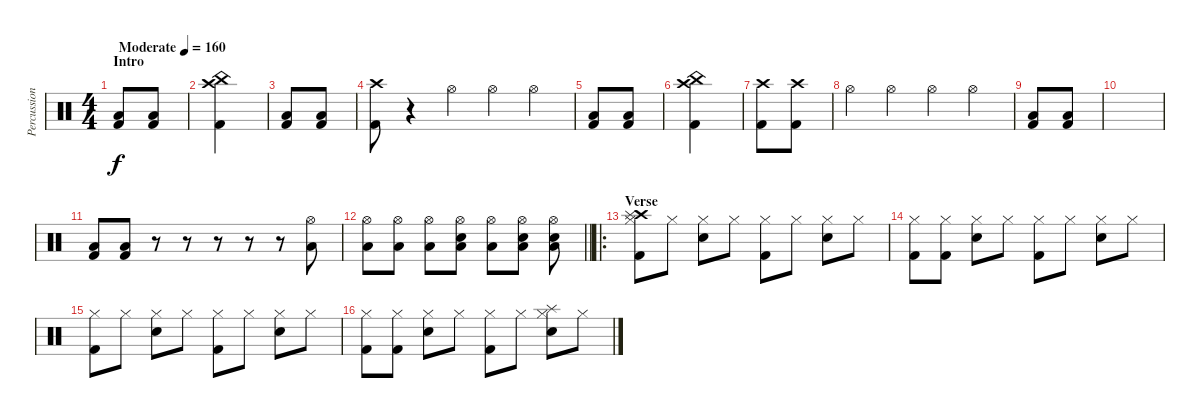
\track ("Percussion" "Percussion") {instrument percussion}
\staff {score}
\articulation defaults
\ts (4 4)
\section ("" "Intro")
\tempo (160 "Moderate")
\clef neutral
\ks c
("Low Floor Tom (hit)" "Kick (hit) 2").8{dy f} ("Low Floor Tom (hit)" "Kick (hit) 2").8 |
("China (hit)" "Crash high (hit)" "Kick (hit) 2").4 |
("Low Floor Tom (hit)" "Kick (hit) 2").8 ("Low Floor Tom (hit)" "Kick (hit) 2").8 |
("Crash high (hit)" "Kick (hit) 2").8 r.4 "Hi-Hat (open)".4 "Hi-Hat (open)".4 "Hi-Hat (open)".4 |
("Low Floor Tom (hit)" "Kick (hit) 2").8 ("Low Floor Tom (hit)" "Kick (hit) 2").8 |
("China (hit)" "Crash high (hit)" "Kick (hit) 2").4 |
("Kick (hit) 2" "Crash high (hit)").8 ("Kick (hit) 2" "Crash high (hit)").8 |
"Hi-Hat (open)".4 "Hi-Hat (open)".4 "Hi-Hat (open)".4 "Hi-Hat (open)".4 |
("Low Floor Tom (hit)" "Kick (hit) 2").8 ("Low Floor Tom (hit)" "Kick (hit) 2").8 |
|
("Low Floor Tom (hit)" "Kick (hit) 2").8 ("Low Floor Tom (hit)" "Kick (hit) 2").8 r.8 r.8 r.8 r.8 r.8 ("Low Tom (hit)" "Hi-Hat (open)").8 |
\barLineRight lightlight
("Low Tom (hit)" "Hi-Hat (open)").8 ("Low Tom (hit)" "Hi-Hat (open)").8 ("Low Tom (hit)" "Hi-Hat (open)").8 ("Low Floor Tom (hit)" "Electric Snare (hit)" "Hi-Hat (open)").8 ("Low Floor Tom (hit)" "Hi-Hat (open)").8 ("Low Floor Tom (hit)" "Electric Snare (hit)" "Hi-Hat (open)").8 ("Low Floor Tom (hit)" "Electric Snare (hit)" "Hi-Hat (open)").8 |
\ro
\section ("" "Verse")
("Crash high (hit)" "Splash (hit)" "Kick (hit) 2" "Hi-Hat (closed)").8 "Hi-Hat (closed)".8 ("Electric Snare (hit)" "Hi-Hat (closed)").8 "Hi-Hat (closed)".8 ("Kick (hit) 2" "Hi-Hat (closed)").8 "Hi-Hat (closed)".8 ("Electric Snare (hit)" "Hi-Hat (closed)").8 "Hi-Hat (closed)".8 |
("Kick (hit) 2" "Hi-Hat (closed)").8 ("Kick (hit) 2" "Hi-Hat (closed)").8 ("Electric Snare (hit)" "Hi-Hat (closed)").8 "Hi-Hat (closed)".8 ("Kick (hit) 2" "Hi-Hat (closed)").8 "Hi-Hat (closed)".8 ("Electric Snare (hit)" "Hi-Hat (closed)").8 "Hi-Hat (closed)".8 |
("Kick (hit) 2" "Hi-Hat (closed)").8 "Hi-Hat (closed)".8 ("Electric Snare (hit)" "Hi-Hat (closed)").8 "Hi-Hat (closed)".8 ("Kick (hit) 2" "Hi-Hat (closed)").8 "Hi-Hat (closed)".8 ("Electric Snare (hit)" "Hi-Hat (closed)").8 "Hi-Hat (closed)".8 |
("Kick (hit) 2" "Hi-Hat (closed)").8 ("Kick (hit) 2" "Hi-Hat (closed)").8 ("Electric Snare (hit)" "Hi-Hat (closed)").8 "Hi-Hat (closed)".8 ("Kick (hit) 2" "Hi-Hat (closed)").8 "Hi-Hat (closed)".8 ("Splash (hit)" "Electric Snare (hit)" "Hi-Hat (closed)").8 "Hi-Hat (closed)".8
